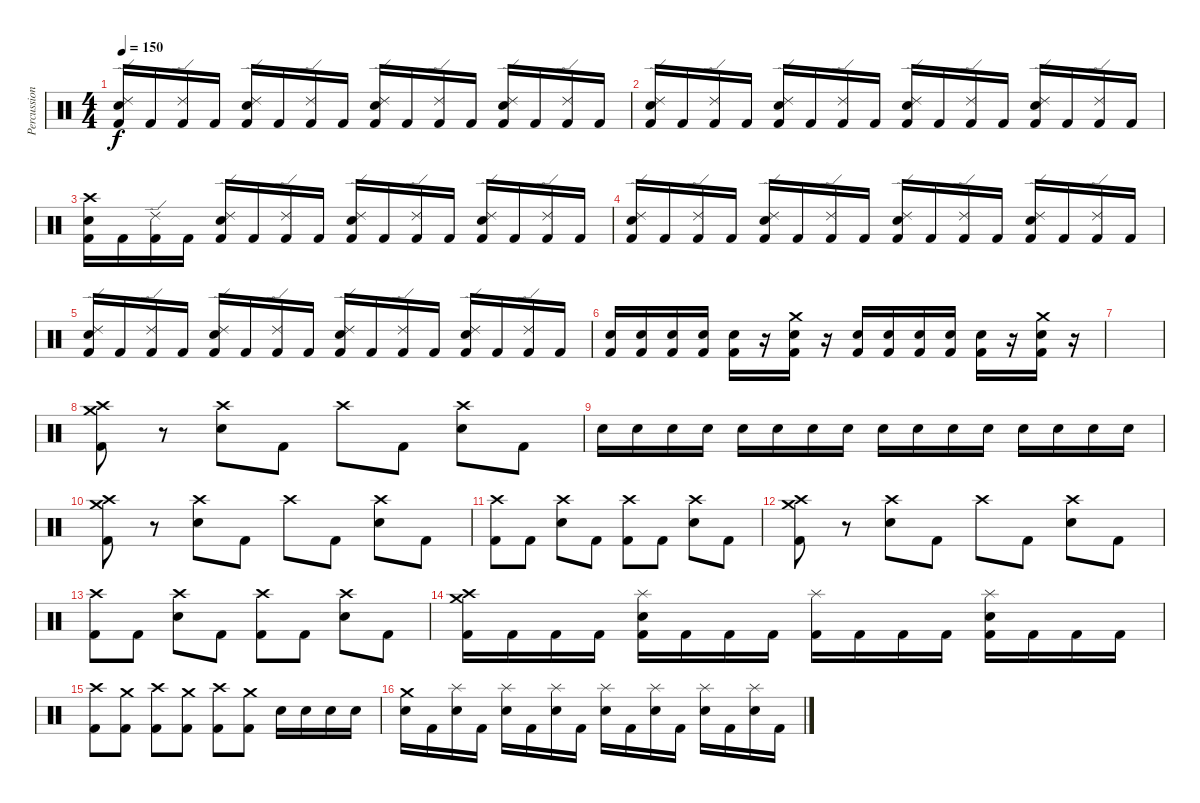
\track ("Percussion" "Percussion") {instrument percussion}
\staff {score}
\articulation defaults
\ts (4 4)
\tempo 150
\clef neutral
\ks c
("Electric Snare (hit)" "Ride (edge) 2" "Kick (hit) 2").16{dy f} "Kick (hit) 2".16 ("Ride (edge) 2" "Kick (hit) 2").16 "Kick (hit) 2".16 ("Electric Snare (hit)" "Ride (edge) 2" "Kick (hit) 2").16 "Kick (hit) 2".16 ("Ride (edge) 2" "Kick (hit) 2").16 "Kick (hit) 2".16 ("Electric Snare (hit)" "Ride (edge) 2" "Kick (hit) 2").16 "Kick (hit) 2".16 ("Ride (edge) 2" "Kick (hit) 2").16 "Kick (hit) 2".16 ("Electric Snare (hit)" "Ride (edge) 2" "Kick (hit) 2").16 "Kick (hit) 2".16 ("Ride (edge) 2" "Kick (hit) 2").16 "Kick (hit) 2".16 |
("Electric Snare (hit)" "Ride (edge) 2" "Kick (hit) 2").16 "Kick (hit) 2".16 ("Ride (edge) 2" "Kick (hit) 2").16 "Kick (hit) 2".16 ("Electric Snare (hit)" "Ride (edge) 2" "Kick (hit) 2").16 "Kick (hit) 2".16 ("Ride (edge) 2" "Kick (hit) 2").16 "Kick (hit) 2".16 ("Electric Snare (hit)" "Ride (edge) 2" "Kick (hit) 2").16 "Kick (hit) 2".16 ("Ride (edge) 2" "Kick (hit) 2").16 "Kick (hit) 2".16 ("Electric Snare (hit)" "Ride (edge) 2" "Kick (hit) 2").16 "Kick (hit) 2".16 ("Ride (edge) 2" "Kick (hit) 2").16 "Kick (hit) 2".16 |
("Electric Snare (hit)" "Crash high (hit)" "Kick (hit) 2").16 "Kick (hit) 2".16 ("Ride (edge) 2" "Kick (hit) 2").16 "Kick (hit) 2".16 ("Electric Snare (hit)" "Ride (edge) 2" "Kick (hit) 2").16 "Kick (hit) 2".16 ("Ride (edge) 2" "Kick (hit) 2").16 "Kick (hit) 2".16 ("Electric Snare (hit)" "Ride (edge) 2" "Kick (hit) 2").16 "Kick (hit) 2".16 ("Ride (edge) 2" "Kick (hit) 2").16 "Kick (hit) 2".16 ("Electric Snare (hit)" "Ride (edge) 2" "Kick (hit) 2").16 "Kick (hit) 2".16 ("Ride (edge) 2" "Kick (hit) 2").16 "Kick (hit) 2".16 |
("Electric Snare (hit)" "Ride (edge) 2" "Kick (hit) 2").16 "Kick (hit) 2".16 ("Ride (edge) 2" "Kick (hit) 2").16 "Kick (hit) 2".16 ("Electric Snare (hit)" "Ride (edge) 2" "Kick (hit) 2").16 "Kick (hit) 2".16 ("Ride (edge) 2" "Kick (hit) 2").16 "Kick (hit) 2".16 ("Electric Snare (hit)" "Ride (edge) 2" "Kick (hit) 2").16 "Kick (hit) 2".16 ("Ride (edge) 2" "Kick (hit) 2").16 "Kick (hit) 2".16 ("Electric Snare (hit)" "Ride (edge) 2" "Kick (hit) 2").16 "Kick (hit) 2".16 ("Ride (edge) 2" "Kick (hit) 2").16 "Kick (hit) 2".16 |
("Electric Snare (hit)" "Ride (edge) 2" "Kick (hit) 2").16 "Kick (hit) 2".16 ("Ride (edge) 2" "Kick (hit) 2").16 "Kick (hit) 2".16 ("Electric Snare (hit)" "Ride (edge) 2" "Kick (hit) 2").16 "Kick (hit) 2".16 ("Ride (edge) 2" "Kick (hit) 2").16 "Kick (hit) 2".16 ("Electric Snare (hit)" "Ride (edge) 2" "Kick (hit) 2").16 "Kick (hit) 2".16 ("Ride (edge) 2" "Kick (hit) 2").16 "Kick (hit) 2".16 ("Electric Snare (hit)" "Ride (edge) 2" "Kick (hit) 2").16 "Kick (hit) 2".16 ("Ride (edge) 2" "Kick (hit) 2").16 "Kick (hit) 2".16 |
("Electric Snare (hit)" "Kick (hit) 2").16 ("Electric Snare (hit)" "Kick (hit) 2").16 ("Electric Snare (hit)" "Kick (hit) 2").16 ("Electric Snare (hit)" "Kick (hit) 2").16 ("Electric Snare (hit)" "Kick (hit) 2").16 r.16 ("Electric Snare (hit)" "Crash medium (hit)" "Kick (hit) 2").16 r.16 ("Electric Snare (hit)" "Kick (hit) 2").16 ("Electric Snare (hit)" "Kick (hit) 2").16 ("Electric Snare (hit)" "Kick (hit) 2").16 ("Electric Snare (hit)" "Kick (hit) 2").16 ("Electric Snare (hit)" "Kick (hit) 2").16 r.16 ("Electric Snare (hit)" "Crash medium (hit)" "Kick (hit) 2").16 r.16 |
|
("Crash high (hit)" "Crash medium (hit)" "Kick (hit) 2").8 r.8 ("Crash high (hit)" "Electric Snare (hit)").8 "Kick (hit) 2".8 "Crash high (hit)".8 "Kick (hit) 2".8 ("Crash high (hit)" "Electric Snare (hit)").8 "Kick (hit) 2".8 |
"Electric Snare (hit)".16{volume 2} "Electric Snare (hit)".16{volume 3} "Electric Snare (hit)".16{volume 4} "Electric Snare (hit)".16{volume 5} "Electric Snare (hit)".16{volume 6} "Electric Snare (hit)".16{volume 7} "Electric Snare (hit)".16 "Electric Snare (hit)".16{volume 7} "Electric Snare (hit)".16{volume 8} "Electric Snare (hit)".16{volume 9} "Electric Snare (hit)".16{volume 10} "Electric Snare (hit)".16{volume 11} "Electric Snare (hit)".16{volume 13} "Electric Snare (hit)".16 "Electric Snare (hit)".16 "Electric Snare (hit)".16{volume 12} |
("Crash high (hit)" "Crash medium (hit)" "Kick (hit) 2").8 r.8 ("Crash high (hit)" "Electric Snare (hit)").8 "Kick (hit) 2".8 "Crash high (hit)".8 "Kick (hit) 2".8 ("Crash high (hit)" "Electric Snare (hit)").8 "Kick (hit) 2".8 |
("Crash high (hit)" "Kick (hit) 2").8 "Kick (hit) 2".8 ("Crash high (hit)" "Electric Snare (hit)").8 "Kick (hit) 2".8 ("Crash high (hit)" "Kick (hit) 2").8 "Kick (hit) 2".8 ("Crash high (hit)" "Electric Snare (hit)").8 "Kick (hit) 2".8 |
("Crash high (hit)" "Crash medium (hit)" "Kick (hit) 2").8 r.8 ("Crash high (hit)" "Electric Snare (hit)").8 "Kick (hit) 2".8 "Crash high (hit)".8 "Kick (hit) 2".8 ("Crash high (hit)" "Electric Snare (hit)").8 "Kick (hit) 2".8 |
("Crash high (hit)" "Kick (hit) 2").8 "Kick (hit) 2".8 ("Crash high (hit)" "Electric Snare (hit)").8 "Kick (hit) 2".8 ("Crash high (hit)" "Kick (hit) 2").8 "Kick (hit) 2".8 ("Crash high (hit)" "Electric Snare (hit)").8 "Kick (hit) 2".8 |
("Crash medium (hit)" "Crash high (hit)" "Kick (hit) 2").16 "Kick (hit) 2".16 "Kick (hit) 2".16 "Kick (hit) 2".16 ("Splash (hit)" "Electric Snare (hit)" "Kick (hit) 2").16 "Kick (hit) 2".16 "Kick (hit) 2".16 "Kick (hit) 2".16 ("Splash (hit)" "Kick (hit) 2").16 "Kick (hit) 2".16 "Kick (hit) 2".16 "Kick (hit) 2".16 ("Splash (hit)" "Electric Snare (hit)" "Kick (hit) 2").16 "Kick (hit) 2".16 "Kick (hit) 2".16 "Kick (hit) 2".16 |
("Crash high (hit)" "Kick (hit) 2").8 ("Crash medium (hit)" "Kick (hit) 2").8 ("Crash high (hit)" "Kick (hit) 2").8 ("Crash medium (hit)" "Kick (hit) 2").8 ("Crash high (hit)" "Kick (hit) 2").8 ("Crash medium (hit)" "Kick (hit) 2").8 "Electric Snare (hit)".16 "Electric Snare (hit)".16 "Electric Snare (hit)".16 "Electric Snare (hit)".16 |
("Crash medium (hit)" "Electric Snare (hit)").16 "Kick (hit) 2".16 ("Splash (hit)" "Electric Snare (hit)").16 "Kick (hit) 2".16 ("Splash (hit)" "Electric Snare (hit)").16 "Kick (hit) 2".16 ("Splash (hit)" "Electric Snare (hit)").16 "Kick (hit) 2".16 ("Splash (hit)" "Electric Snare (hit)").16 "Kick (hit) 2".16 ("Splash (hit)" "Electric Snare (hit)").16 "Kick (hit) 2".16 ("Splash (hit)" "Electric Snare (hit)").16 "Kick (hit) 2".16 ("Splash (hit)" "Electric Snare (hit)").16 "Kick (hit) 2".16
